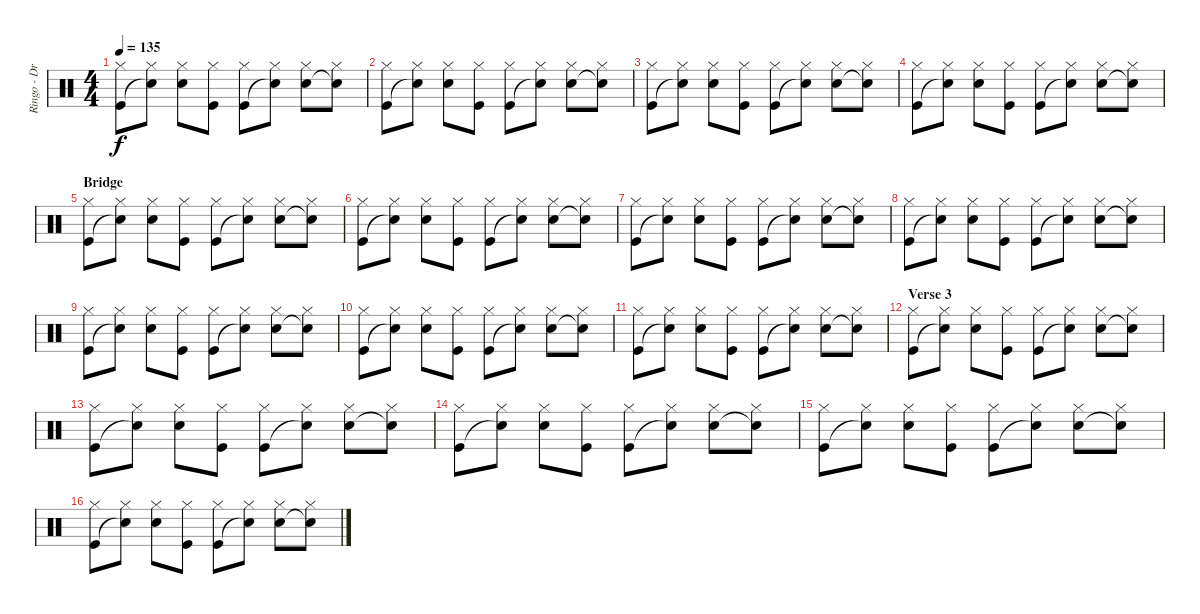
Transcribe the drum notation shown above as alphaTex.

\track ("Ringo - Drums" "Ringo - Dr") {instrument percussion}
\staff {score}
\articulation defaults
\ts (4 4)
\tempo 135
\clef neutral
\ks c
("Kick (hit)" "Hi-Hat (closed)").8{dy f} ("Snare (hit)"{t} "Hi-Hat (closed)").8 ("Snare (hit) 2" "Hi-Hat (closed)").8 ("Kick (hit)" "Hi-Hat (closed)").8 ("Kick (hit)" "Hi-Hat (closed)").8 ("Snare (hit)"{t} "Hi-Hat (closed)").8 ("Snare (hit) 2" "Hi-Hat (closed)").8 ("Snare (hit)"{t} "Hi-Hat (closed)").8 |
("Kick (hit)" "Hi-Hat (closed)").8 ("Snare (hit)"{t} "Hi-Hat (closed)").8 ("Snare (hit) 2" "Hi-Hat (closed)").8 ("Kick (hit)" "Hi-Hat (closed)").8 ("Kick (hit)" "Hi-Hat (closed)").8 ("Snare (hit)"{t} "Hi-Hat (closed)").8 ("Snare (hit) 2" "Hi-Hat (closed)").8 ("Snare (hit)"{t} "Hi-Hat (closed)").8 |
("Kick (hit)" "Hi-Hat (closed)").8 ("Snare (hit)"{t} "Hi-Hat (closed)").8 ("Snare (hit) 2" "Hi-Hat (closed)").8 ("Kick (hit)" "Hi-Hat (closed)").8 ("Kick (hit)" "Hi-Hat (closed)").8 ("Snare (hit)"{t} "Hi-Hat (closed)").8 ("Snare (hit) 2" "Hi-Hat (closed)").8 ("Snare (hit)"{t} "Hi-Hat (closed)").8 |
("Kick (hit)" "Hi-Hat (closed)").8 ("Snare (hit)"{t} "Hi-Hat (closed)").8 ("Snare (hit) 2" "Hi-Hat (closed)").8 ("Kick (hit)" "Hi-Hat (closed)").8 ("Kick (hit)" "Hi-Hat (closed)").8 ("Snare (hit)"{t} "Hi-Hat (closed)").8 ("Snare (hit) 2" "Hi-Hat (closed)").8 ("Snare (hit)"{t} "Hi-Hat (closed)").8 |
\section ("" "Bridge")
("Kick (hit)" "Hi-Hat (closed)").8 ("Snare (hit)"{t} "Hi-Hat (closed)").8 ("Snare (hit) 2" "Hi-Hat (closed)").8 ("Kick (hit)" "Hi-Hat (closed)").8 ("Kick (hit)" "Hi-Hat (closed)").8 ("Snare (hit)"{t} "Hi-Hat (closed)").8 ("Snare (hit) 2" "Hi-Hat (closed)").8 ("Snare (hit)"{t} "Hi-Hat (closed)").8 |
("Kick (hit)" "Hi-Hat (closed)").8 ("Snare (hit)"{t} "Hi-Hat (closed)").8 ("Snare (hit) 2" "Hi-Hat (closed)").8 ("Kick (hit)" "Hi-Hat (closed)").8 ("Kick (hit)" "Hi-Hat (closed)").8 ("Snare (hit)"{t} "Hi-Hat (closed)").8 ("Snare (hit) 2" "Hi-Hat (closed)").8 ("Snare (hit)"{t} "Hi-Hat (closed)").8 |
("Kick (hit)" "Hi-Hat (closed)").8 ("Snare (hit)"{t} "Hi-Hat (closed)").8 ("Snare (hit) 2" "Hi-Hat (closed)").8 ("Kick (hit)" "Hi-Hat (closed)").8 ("Kick (hit)" "Hi-Hat (closed)").8 ("Snare (hit)"{t} "Hi-Hat (closed)").8 ("Snare (hit) 2" "Hi-Hat (closed)").8 ("Snare (hit)"{t} "Hi-Hat (closed)").8 |
("Kick (hit)" "Hi-Hat (closed)").8 ("Snare (hit)"{t} "Hi-Hat (closed)").8 ("Snare (hit) 2" "Hi-Hat (closed)").8 ("Kick (hit)" "Hi-Hat (closed)").8 ("Kick (hit)" "Hi-Hat (closed)").8 ("Snare (hit)"{t} "Hi-Hat (closed)").8 ("Snare (hit) 2" "Hi-Hat (closed)").8 ("Snare (hit)"{t} "Hi-Hat (closed)").8 |
("Kick (hit)" "Hi-Hat (closed)").8 ("Snare (hit)"{t} "Hi-Hat (closed)").8 ("Snare (hit) 2" "Hi-Hat (closed)").8 ("Kick (hit)" "Hi-Hat (closed)").8 ("Kick (hit)" "Hi-Hat (closed)").8 ("Snare (hit)"{t} "Hi-Hat (closed)").8 ("Snare (hit) 2" "Hi-Hat (closed)").8 ("Snare (hit)"{t} "Hi-Hat (closed)").8 |
("Kick (hit)" "Hi-Hat (closed)").8 ("Snare (hit)"{t} "Hi-Hat (closed)").8 ("Snare (hit) 2" "Hi-Hat (closed)").8 ("Kick (hit)" "Hi-Hat (closed)").8 ("Kick (hit)" "Hi-Hat (closed)").8 ("Snare (hit)"{t} "Hi-Hat (closed)").8 ("Snare (hit) 2" "Hi-Hat (closed)").8 ("Snare (hit)"{t} "Hi-Hat (closed)").8 |
("Kick (hit)" "Hi-Hat (closed)").8 ("Snare (hit)"{t} "Hi-Hat (closed)").8 ("Snare (hit) 2" "Hi-Hat (closed)").8 ("Kick (hit)" "Hi-Hat (closed)").8 ("Kick (hit)" "Hi-Hat (closed)").8 ("Snare (hit)"{t} "Hi-Hat (closed)").8 ("Snare (hit) 2" "Hi-Hat (closed)").8 ("Snare (hit)"{t} "Hi-Hat (closed)").8 |
\section ("" "Verse 3")
("Kick (hit)" "Hi-Hat (closed)").8 ("Snare (hit)"{t} "Hi-Hat (closed)").8 ("Snare (hit) 2" "Hi-Hat (closed)").8 ("Kick (hit)" "Hi-Hat (closed)").8 ("Kick (hit)" "Hi-Hat (closed)").8 ("Snare (hit)"{t} "Hi-Hat (closed)").8 ("Snare (hit) 2" "Hi-Hat (closed)").8 ("Snare (hit)"{t} "Hi-Hat (closed)").8 |
("Kick (hit)" "Hi-Hat (closed)").8 ("Snare (hit)"{t} "Hi-Hat (closed)").8 ("Snare (hit) 2" "Hi-Hat (closed)").8 ("Kick (hit)" "Hi-Hat (closed)").8 ("Kick (hit)" "Hi-Hat (closed)").8 ("Snare (hit)"{t} "Hi-Hat (closed)").8 ("Snare (hit) 2" "Hi-Hat (closed)").8 ("Snare (hit)"{t} "Hi-Hat (closed)").8 |
("Kick (hit)" "Hi-Hat (closed)").8 ("Snare (hit)"{t} "Hi-Hat (closed)").8 ("Snare (hit) 2" "Hi-Hat (closed)").8 ("Kick (hit)" "Hi-Hat (closed)").8 ("Kick (hit)" "Hi-Hat (closed)").8 ("Snare (hit)"{t} "Hi-Hat (closed)").8 ("Snare (hit) 2" "Hi-Hat (closed)").8 ("Snare (hit)"{t} "Hi-Hat (closed)").8 |
("Kick (hit)" "Hi-Hat (closed)").8 ("Snare (hit)"{t} "Hi-Hat (closed)").8 ("Snare (hit) 2" "Hi-Hat (closed)").8 ("Kick (hit)" "Hi-Hat (closed)").8 ("Kick (hit)" "Hi-Hat (closed)").8 ("Snare (hit)"{t} "Hi-Hat (closed)").8 ("Snare (hit) 2" "Hi-Hat (closed)").8 ("Snare (hit)"{t} "Hi-Hat (closed)").8 |
("Kick (hit)" "Hi-Hat (closed)").8 ("Snare (hit)"{t} "Hi-Hat (closed)").8 ("Snare (hit) 2" "Hi-Hat (closed)").8 ("Kick (hit)" "Hi-Hat (closed)").8 ("Kick (hit)" "Hi-Hat (closed)").8 ("Snare (hit)"{t} "Hi-Hat (closed)").8 ("Snare (hit) 2" "Hi-Hat (closed)").8 ("Snare (hit)"{t} "Hi-Hat (closed)").8
